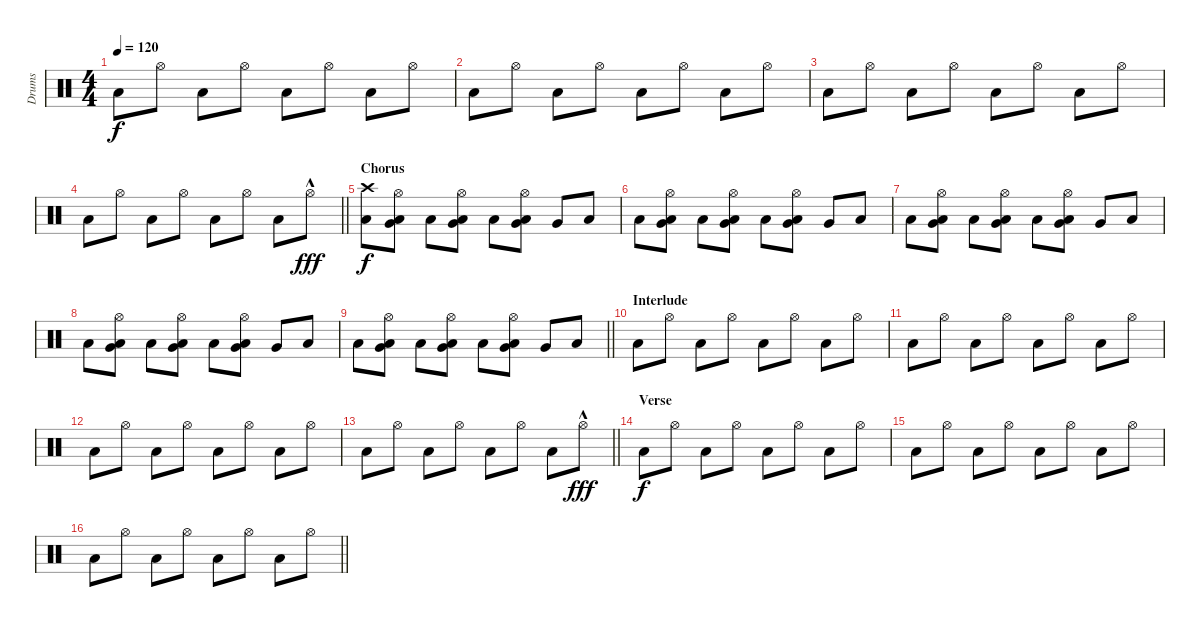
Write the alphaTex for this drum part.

\track ("Drums" "Drums") {instrument percussion}
\staff {score}
\articulation defaults
\ts (4 4)
\tempo 120
\clef neutral
\ks c "Low Floor Tom (hit)".8{dy f} "Hi-Hat (open)".8 "Low Floor Tom (hit)".8 "Hi-Hat (open)".8 "Low Floor Tom (hit)".8 "Hi-Hat (open)".8 "Low Floor Tom (hit)".8 "Hi-Hat (open)".8
|
"Low Floor Tom (hit)".8 "Hi-Hat (open)".8 "Low Floor Tom (hit)".8 "Hi-Hat (open)".8 "Low Floor Tom (hit)".8 "Hi-Hat (open)".8 "Low Floor Tom (hit)".8 "Hi-Hat (open)".8 |
"Low Floor Tom (hit)".8 "Hi-Hat (open)".8 "Low Floor Tom (hit)".8 "Hi-Hat (open)".8 "Low Floor Tom (hit)".8 "Hi-Hat (open)".8 "Low Floor Tom (hit)".8 "Hi-Hat (open)".8 |
\barLineRight lightlight "Low Floor Tom (hit)".8 "Hi-Hat (open)".8 "Low Floor Tom (hit)".8 "Hi-Hat (open)".8 "Low Floor Tom (hit)".8 "Hi-Hat (open)".8 "Low Floor Tom (hit)".8 "Hi-Hat (open)"{hac}.8{dy fff}
|
\section ("" "Chorus")
("Crash high (hit)" "Low Floor Tom (hit)").8{dy f} ("Hi-Hat (open)" "Low Tom (hit)" "Very Low Tom (hit)").8 "Low Floor Tom (hit)".8 ("Hi-Hat (open)" "Low Tom (hit)" "Very Low Tom (hit)").8 "Low Floor Tom (hit)".8 ("Hi-Hat (open)" "Low Tom (hit)" "Very Low Tom (hit)").8 "Very Low Tom (hit)".8 "Low Floor Tom (hit)".8 |
"Low Floor Tom (hit)".8 ("Hi-Hat (open)" "Low Tom (hit)" "Very Low Tom (hit)").8 "Low Floor Tom (hit)".8 ("Hi-Hat (open)" "Low Tom (hit)" "Very Low Tom (hit)").8 "Low Floor Tom (hit)".8 ("Hi-Hat (open)" "Low Tom (hit)" "Very Low Tom (hit)").8 "Very Low Tom (hit)".8 "Low Floor Tom (hit)".8 |
"Low Floor Tom (hit)".8 ("Hi-Hat (open)" "Low Tom (hit)" "Very Low Tom (hit)").8 "Low Floor Tom (hit)".8 ("Hi-Hat (open)" "Low Tom (hit)" "Very Low Tom (hit)").8 "Low Floor Tom (hit)".8 ("Hi-Hat (open)" "Low Tom (hit)" "Very Low Tom (hit)").8 "Very Low Tom (hit)".8 "Low Floor Tom (hit)".8 |
"Low Floor Tom (hit)".8 ("Hi-Hat (open)" "Low Tom (hit)" "Very Low Tom (hit)").8 "Low Floor Tom (hit)".8 ("Hi-Hat (open)" "Low Tom (hit)" "Very Low Tom (hit)").8 "Low Floor Tom (hit)".8 ("Hi-Hat (open)" "Low Tom (hit)" "Very Low Tom (hit)").8 "Very Low Tom (hit)".8 "Low Floor Tom (hit)".8 |
\barLineRight lightlight "Low Floor Tom (hit)".8
("Hi-Hat (open)" "Low Tom (hit)" "Very Low Tom (hit)").8 "Low Floor Tom (hit)".8 ("Hi-Hat (open)" "Low Tom (hit)" "Very Low Tom (hit)").8 "Low Floor Tom (hit)".8 ("Hi-Hat (open)" "Low Tom (hit)" "Very Low Tom (hit)").8 "Very Low Tom (hit)".8 "Low Floor Tom (hit)".8 |
\section ("" "Interlude")
"Low Floor Tom (hit)".8 "Hi-Hat (open)".8 "Low Floor Tom (hit)".8 "Hi-Hat (open)".8 "Low Floor Tom (hit)".8 "Hi-Hat (open)".8 "Low Floor Tom (hit)".8 "Hi-Hat (open)".8 |
"Low Floor Tom (hit)".8 "Hi-Hat (open)".8 "Low Floor Tom (hit)".8 "Hi-Hat (open)".8 "Low Floor Tom (hit)".8 "Hi-Hat (open)".8 "Low Floor Tom (hit)".8 "Hi-Hat (open)".8 |
"Low Floor Tom (hit)".8 "Hi-Hat (open)".8 "Low Floor Tom (hit)".8 "Hi-Hat (open)".8 "Low Floor Tom (hit)".8 "Hi-Hat (open)".8 "Low Floor Tom (hit)".8 "Hi-Hat (open)".8 |
\barLineRight lightlight "Low Floor Tom (hit)".8 "Hi-Hat (open)".8 "Low Floor Tom (hit)".8 "Hi-Hat (open)".8 "Low Floor Tom (hit)".8 "Hi-Hat (open)".8 "Low Floor Tom (hit)".8 "Hi-Hat (open)"{hac}.8{dy fff}
|
\section ("" "Verse")
"Low Floor Tom (hit)".8{dy f} "Hi-Hat (open)".8 "Low Floor Tom (hit)".8 "Hi-Hat (open)".8 "Low Floor Tom (hit)".8 "Hi-Hat (open)".8 "Low Floor Tom (hit)".8 "Hi-Hat (open)".8 |
"Low Floor Tom (hit)".8 "Hi-Hat (open)".8 "Low Floor Tom (hit)".8 "Hi-Hat (open)".8 "Low Floor Tom (hit)".8 "Hi-Hat (open)".8 "Low Floor Tom (hit)".8 "Hi-Hat (open)".8 |
\barLineRight lightlight "Low Floor Tom (hit)".8 "Hi-Hat (open)".8 "Low Floor Tom (hit)".8 "Hi-Hat (open)".8 "Low Floor Tom (hit)".8 "Hi-Hat (open)".8 "Low Floor Tom (hit)".8 "Hi-Hat (open)".8
